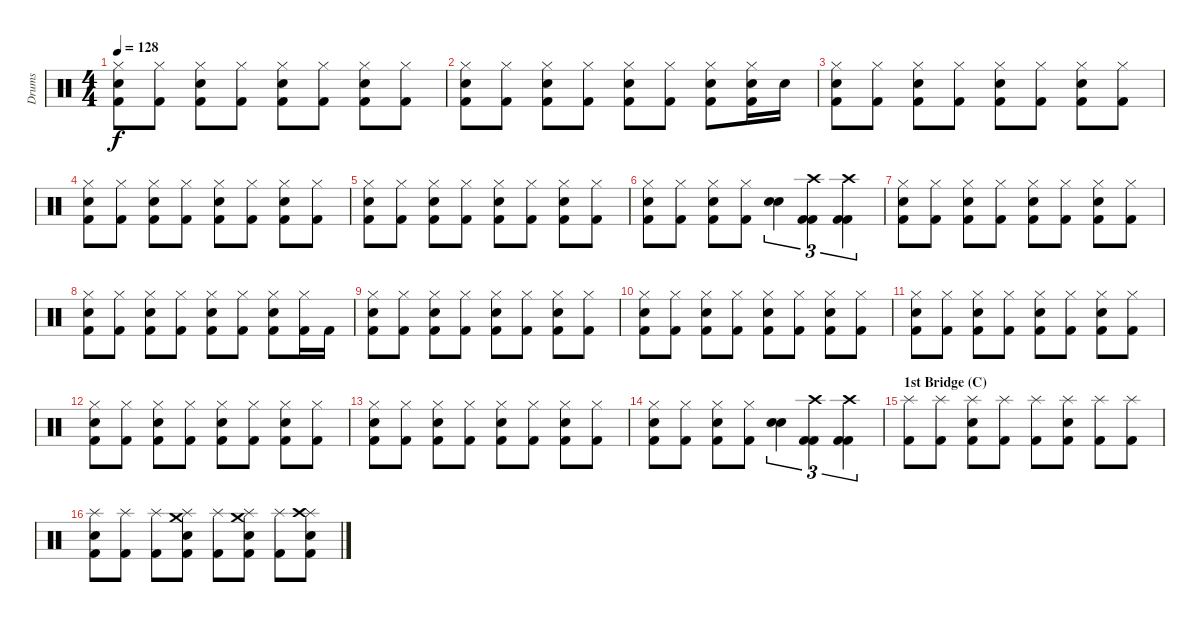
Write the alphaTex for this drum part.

\track ("Drums" "Drums") {instrument percussion}
\staff {score}
\articulation defaults
\ts (4 4)
\tempo 128
\clef neutral
\ks c
("Hi-Hat (closed)" "Kick (hit) 2" "Snare (hit) 2").8{dy f} ("Hi-Hat (closed)" "Kick (hit) 2").8 ("Hi-Hat (closed)" "Kick (hit) 2" "Snare (hit) 2").8 ("Hi-Hat (closed)" "Kick (hit) 2").8 ("Hi-Hat (closed)" "Kick (hit) 2" "Snare (hit) 2").8 ("Hi-Hat (closed)" "Kick (hit) 2").8 ("Hi-Hat (closed)" "Kick (hit) 2" "Snare (hit) 2").8 ("Hi-Hat (closed)" "Kick (hit) 2").8 |
("Hi-Hat (closed)" "Kick (hit) 2" "Snare (hit) 2").8 ("Hi-Hat (closed)" "Kick (hit) 2").8 ("Hi-Hat (closed)" "Kick (hit) 2" "Snare (hit) 2").8 ("Hi-Hat (closed)" "Kick (hit) 2").8 ("Hi-Hat (closed)" "Kick (hit) 2" "Snare (hit) 2").8 ("Hi-Hat (closed)" "Kick (hit) 2").8 ("Hi-Hat (closed)" "Kick (hit) 2" "Snare (hit) 2").8 ("Hi-Hat (closed)" "Kick (hit) 2" "Snare (hit) 2").16 "Snare (hit) 2".16 |
("Hi-Hat (closed)" "Kick (hit) 2" "Snare (hit) 2").8 ("Hi-Hat (closed)" "Kick (hit) 2").8 ("Hi-Hat (closed)" "Kick (hit) 2" "Snare (hit) 2").8 ("Hi-Hat (closed)" "Kick (hit) 2").8 ("Hi-Hat (closed)" "Kick (hit) 2" "Snare (hit) 2").8 ("Hi-Hat (closed)" "Kick (hit) 2").8 ("Hi-Hat (closed)" "Kick (hit) 2" "Snare (hit) 2").8 ("Hi-Hat (closed)" "Kick (hit) 2").8 |
("Hi-Hat (closed)" "Kick (hit) 2" "Snare (hit) 2").8 ("Hi-Hat (closed)" "Kick (hit) 2").8 ("Hi-Hat (closed)" "Kick (hit) 2" "Snare (hit) 2").8 ("Hi-Hat (closed)" "Kick (hit) 2").8 ("Hi-Hat (closed)" "Kick (hit) 2" "Snare (hit) 2").8 ("Hi-Hat (closed)" "Kick (hit) 2").8 ("Hi-Hat (closed)" "Kick (hit) 2" "Snare (hit) 2").8 ("Hi-Hat (closed)" "Kick (hit) 2").8 |
("Hi-Hat (closed)" "Kick (hit) 2" "Snare (hit) 2").8 ("Hi-Hat (closed)" "Kick (hit) 2").8 ("Hi-Hat (closed)" "Kick (hit) 2" "Snare (hit) 2").8 ("Hi-Hat (closed)" "Kick (hit) 2").8 ("Hi-Hat (closed)" "Kick (hit) 2" "Snare (hit) 2").8 ("Hi-Hat (closed)" "Kick (hit) 2").8 ("Hi-Hat (closed)" "Kick (hit) 2" "Snare (hit) 2").8 ("Hi-Hat (closed)" "Kick (hit) 2").8 |
("Hi-Hat (closed)" "Kick (hit) 2" "Snare (hit) 2").8 ("Hi-Hat (closed)" "Kick (hit) 2").8 ("Hi-Hat (closed)" "Kick (hit) 2" "Snare (hit) 2").8 ("Hi-Hat (closed)" "Kick (hit) 2").8 ("Snare (hit) 2" "Snare (hit) 2").4{tu (3 2)} ("Crash high (hit)" "Kick (hit) 2" "Kick (hit) 2").4{tu (3 2)} ("Crash high (hit)" "Kick (hit) 2" "Kick (hit) 2").4{tu (3 2)} |
("Hi-Hat (closed)" "Kick (hit) 2" "Snare (hit) 2").8 ("Hi-Hat (closed)" "Kick (hit) 2").8 ("Hi-Hat (closed)" "Kick (hit) 2" "Snare (hit) 2").8 ("Hi-Hat (closed)" "Kick (hit) 2").8 ("Hi-Hat (closed)" "Kick (hit) 2" "Snare (hit) 2").8 ("Hi-Hat (closed)" "Kick (hit) 2").8 ("Hi-Hat (closed)" "Kick (hit) 2" "Snare (hit) 2").8 ("Hi-Hat (closed)" "Kick (hit) 2").8 |
("Hi-Hat (closed)" "Kick (hit) 2" "Snare (hit) 2").8 ("Hi-Hat (closed)" "Kick (hit) 2").8 ("Hi-Hat (closed)" "Kick (hit) 2" "Snare (hit) 2").8 ("Hi-Hat (closed)" "Kick (hit) 2").8 ("Hi-Hat (closed)" "Kick (hit) 2" "Snare (hit) 2").8 ("Hi-Hat (closed)" "Kick (hit) 2").8 ("Hi-Hat (closed)" "Kick (hit) 2" "Snare (hit) 2").8 ("Hi-Hat (closed)" "Kick (hit) 2").16 "Kick (hit) 2".16 |
("Hi-Hat (closed)" "Kick (hit) 2" "Snare (hit) 2").8 ("Hi-Hat (closed)" "Kick (hit) 2").8 ("Hi-Hat (closed)" "Kick (hit) 2" "Snare (hit) 2").8 ("Hi-Hat (closed)" "Kick (hit) 2").8 ("Hi-Hat (closed)" "Kick (hit) 2" "Snare (hit) 2").8 ("Hi-Hat (closed)" "Kick (hit) 2").8 ("Hi-Hat (closed)" "Kick (hit) 2" "Snare (hit) 2").8 ("Hi-Hat (closed)" "Kick (hit) 2").8 |
("Hi-Hat (closed)" "Kick (hit) 2" "Snare (hit) 2").8 ("Hi-Hat (closed)" "Kick (hit) 2").8 ("Hi-Hat (closed)" "Kick (hit) 2" "Snare (hit) 2").8 ("Hi-Hat (closed)" "Kick (hit) 2").8 ("Hi-Hat (closed)" "Kick (hit) 2" "Snare (hit) 2").8 ("Hi-Hat (closed)" "Kick (hit) 2").8 ("Hi-Hat (closed)" "Kick (hit) 2" "Snare (hit) 2").8 ("Hi-Hat (closed)" "Kick (hit) 2").8 |
("Hi-Hat (closed)" "Kick (hit) 2" "Snare (hit) 2").8 ("Hi-Hat (closed)" "Kick (hit) 2").8 ("Hi-Hat (closed)" "Kick (hit) 2" "Snare (hit) 2").8 ("Hi-Hat (closed)" "Kick (hit) 2").8 ("Hi-Hat (closed)" "Kick (hit) 2" "Snare (hit) 2").8 ("Hi-Hat (closed)" "Kick (hit) 2").8 ("Hi-Hat (closed)" "Kick (hit) 2" "Snare (hit) 2").8 ("Hi-Hat (closed)" "Kick (hit) 2").8 |
("Hi-Hat (closed)" "Kick (hit) 2" "Snare (hit) 2").8 ("Hi-Hat (closed)" "Kick (hit) 2").8 ("Hi-Hat (closed)" "Kick (hit) 2" "Snare (hit) 2").8 ("Hi-Hat (closed)" "Kick (hit) 2").8 ("Hi-Hat (closed)" "Kick (hit) 2" "Snare (hit) 2").8 ("Hi-Hat (closed)" "Kick (hit) 2").8 ("Hi-Hat (closed)" "Kick (hit) 2" "Snare (hit) 2").8 ("Hi-Hat (closed)" "Kick (hit) 2").8 |
("Hi-Hat (closed)" "Kick (hit) 2" "Snare (hit) 2").8 ("Hi-Hat (closed)" "Kick (hit) 2").8 ("Hi-Hat (closed)" "Kick (hit) 2" "Snare (hit) 2").8 ("Hi-Hat (closed)" "Kick (hit) 2").8 ("Hi-Hat (closed)" "Kick (hit) 2" "Snare (hit) 2").8 ("Hi-Hat (closed)" "Kick (hit) 2").8 ("Hi-Hat (closed)" "Kick (hit) 2" "Snare (hit) 2").8 ("Hi-Hat (closed)" "Kick (hit) 2").8 |
("Hi-Hat (closed)" "Kick (hit) 2" "Snare (hit) 2").8 ("Hi-Hat (closed)" "Kick (hit) 2").8 ("Hi-Hat (closed)" "Kick (hit) 2" "Snare (hit) 2").8 ("Hi-Hat (closed)" "Kick (hit) 2").8 ("Snare (hit) 2" "Snare (hit) 2").4{tu (3 2)} ("Crash high (hit)" "Kick (hit) 2" "Kick (hit) 2").4{tu (3 2)} ("Crash high (hit)" "Kick (hit) 2" "Kick (hit) 2").4{tu (3 2)} |
\section ("" "1st Bridge (C)")
("Splash (hit)" "Kick (hit) 2").8 ("Splash (hit)" "Kick (hit) 2").8 ("Splash (hit)" "Kick (hit) 2" "Snare (hit) 2").8 ("Splash (hit)" "Kick (hit) 2").8 ("Splash (hit)" "Kick (hit) 2").8 ("Splash (hit)" "Kick (hit) 2" "Snare (hit) 2").8 ("Splash (hit)" "Kick (hit) 2").8 ("Splash (hit)" "Kick (hit) 2").8 |
("Splash (hit)" "Kick (hit) 2" "Snare (hit) 2").8 ("Splash (hit)" "Kick (hit) 2").8 ("Splash (hit)" "Kick (hit) 2").8 ("Splash (hit)" "Kick (hit) 2" "Snare (hit) 2" "Crash medium (hit)").8 ("Splash (hit)" "Kick (hit) 2").8 ("Splash (hit)" "Kick (hit) 2" "Snare (hit) 2" "Crash medium (hit)").8 ("Splash (hit)" "Kick (hit) 2").8 ("Splash (hit)" "Kick (hit) 2" "Snare (hit) 2" "Crash high (hit)").8
